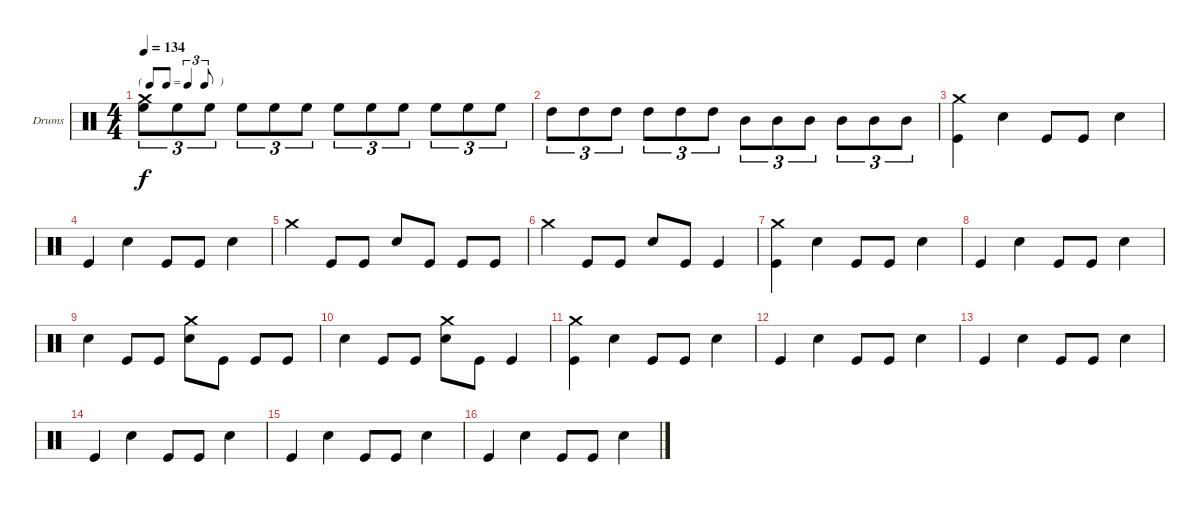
\bracketExtendMode groupsimilarinstruments
\firstSystemTrackNameOrientation horizontal
\otherSystemsTrackNameOrientation horizontal
\track ("Drumkit" "Drums") {instrument percussion}
\staff {score}
\articulation defaults
\ts (4 4)
\beaming (8 2 2 2 2)
\tf triplet8th
\tempo 134
\clef neutral
\ks c
("High Floor Tom (hit)" "Crash medium (hit)").8{tu (3 2) dy f} "High Floor Tom (hit)".8{tu (3 2)} "High Floor Tom (hit)".8{tu (3 2)} "High Floor Tom (hit)".8{tu (3 2)} "High Floor Tom (hit)".8{tu (3 2)} "High Floor Tom (hit)".8{tu (3 2)} "High Floor Tom (hit)".8{tu (3 2)} "High Floor Tom (hit)".8{tu (3 2)} "High Floor Tom (hit)".8{tu (3 2)} "High Floor Tom (hit)".8{tu (3 2)} "High Floor Tom (hit)".8{tu (3 2)} "High Floor Tom (hit)".8{tu (3 2)} |
"High Tom (hit)".8{tu (3 2)} "High Tom (hit)".8{tu (3 2)} "High Tom (hit)".8{tu (3 2)} "High Tom (hit)".8{tu (3 2)} "High Tom (hit)".8{tu (3 2)} "High Tom (hit)".8{tu (3 2)} "Mid Tom (hit)".8{tu (3 2)} "Mid Tom (hit)".8{tu (3 2)} "Mid Tom (hit)".8{tu (3 2)} "Mid Tom (hit)".8{tu (3 2)} "Mid Tom (hit)".8{tu (3 2)} "Mid Tom (hit)".8{tu (3 2)} |
("Kick (hit)" "Crash medium (hit)").4 "Snare (hit) 2".4 "Kick (hit)".8 "Kick (hit)".8 "Snare (hit) 2".4 |
"Kick (hit)".4 "Snare (hit) 2".4 "Kick (hit)".8 "Kick (hit)".8 "Snare (hit) 2".4 |
"Crash medium (hit)".4 "Kick (hit)".8 "Kick (hit)".8 "Snare (hit) 2".8 "Kick (hit)".8 "Kick (hit)".8 "Kick (hit)".8 |
"Crash medium (hit)".4 "Kick (hit)".8 "Kick (hit)".8 "Snare (hit) 2".8 "Kick (hit)".8 "Kick (hit)".4 |
("Kick (hit)" "Crash medium (hit)").4 "Snare (hit) 2".4 "Kick (hit)".8 "Kick (hit)".8 "Snare (hit) 2".4 |
"Kick (hit)".4 "Snare (hit) 2".4 "Kick (hit)".8 "Kick (hit)".8 "Snare (hit) 2".4 |
"Snare (hit) 2".4 "Kick (hit)".8 "Kick (hit)".8 ("Snare (hit) 2" "Crash medium (hit)").8 "Kick (hit)".8 "Kick (hit)".8 "Kick (hit)".8 |
"Snare (hit) 2".4 "Kick (hit)".8 "Kick (hit)".8 ("Snare (hit) 2" "Crash medium (hit)").8 "Kick (hit)".8 "Kick (hit)".4 |
("Kick (hit)" "Crash medium (hit)").4 "Snare (hit) 2".4 "Kick (hit)".8 "Kick (hit)".8 "Snare (hit) 2".4 |
"Kick (hit)".4 "Snare (hit) 2".4 "Kick (hit)".8 "Kick (hit)".8 "Snare (hit) 2".4 |
"Kick (hit)".4 "Snare (hit) 2".4 "Kick (hit)".8 "Kick (hit)".8 "Snare (hit) 2".4 |
"Kick (hit)".4 "Snare (hit) 2".4 "Kick (hit)".8 "Kick (hit)".8 "Snare (hit) 2".4 |
"Kick (hit)".4 "Snare (hit) 2".4 "Kick (hit)".8 "Kick (hit)".8 "Snare (hit) 2".4 |
"Kick (hit)".4 "Snare (hit) 2".4 "Kick (hit)".8 "Kick (hit)".8 "Snare (hit) 2".4
